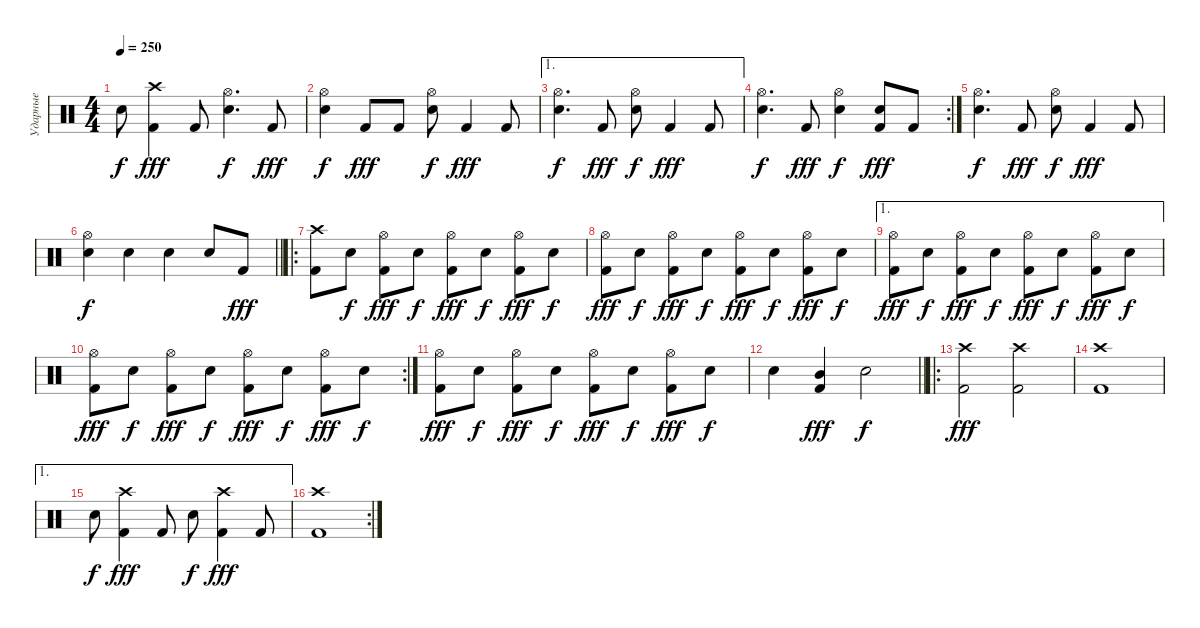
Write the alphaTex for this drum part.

\track ("Ударные" "Ударные") {instrument percussion}
\staff {score}
\articulation defaults
\ts (4 4)
\tempo 250
\clef neutral
\ks c "Snare (hit) 2".8{dy f}
("Kick (hit) 2" "Crash high (hit)").4{dy fff} "Kick (hit) 2".8 ("Snare (hit) 2" "Hi-Hat (open)").4{d dy f} "Kick (hit) 2".8{dy fff} |
("Snare (hit) 2" "Hi-Hat (open)").4{dy f} "Kick (hit) 2".8{dy fff} "Kick (hit) 2".8 ("Snare (hit) 2" "Hi-Hat (open)").8{dy f} "Kick (hit) 2".4{dy fff} "Kick (hit) 2".8 |
\ae 1
("Snare (hit) 2" "Hi-Hat (open)").4{d dy f} "Kick (hit) 2".8{dy fff} ("Snare (hit) 2" "Hi-Hat (open)").8{dy f} "Kick (hit) 2".4{dy fff} "Kick (hit) 2".8 |
\rc 2
("Snare (hit) 2" "Hi-Hat (open)").4{d dy f} "Kick (hit) 2".8{dy fff} ("Snare (hit) 2" "Hi-Hat (open)").4{dy f} ("Kick (hit) 2" "Snare (hit) 2").8{dy fff} "Kick (hit) 2".8 |
("Snare (hit) 2" "Hi-Hat (open)").4{d dy f} "Kick (hit) 2".8{dy fff} ("Snare (hit) 2" "Hi-Hat (open)").8{dy f} "Kick (hit) 2".4{dy fff} "Kick (hit) 2".8 |
\barLineRight lightlight
("Snare (hit) 2" "Hi-Hat (open)").4{dy f} "Snare (hit) 2".4 "Snare (hit) 2".4 "Snare (hit) 2".8 "Kick (hit) 2".8{dy fff} |
\ro
("Kick (hit) 2" "Crash high (hit)").8 "Snare (hit) 2".8{dy f} ("Kick (hit) 2" "Hi-Hat (open)").8{dy fff} "Snare (hit) 2".8{dy f} ("Kick (hit) 2" "Hi-Hat (open)").8{dy fff} "Snare (hit) 2".8{dy f} ("Kick (hit) 2" "Hi-Hat (open)").8{dy fff} "Snare (hit) 2".8{dy f} |
("Kick (hit) 2" "Hi-Hat (open)").8{dy fff} "Snare (hit) 2".8{dy f} ("Kick (hit) 2" "Hi-Hat (open)").8{dy fff} "Snare (hit) 2".8{dy f} ("Kick (hit) 2" "Hi-Hat (open)").8{dy fff} "Snare (hit) 2".8{dy f} ("Kick (hit) 2" "Hi-Hat (open)").8{dy fff} "Snare (hit) 2".8{dy f} |
\ae 1
("Kick (hit) 2" "Hi-Hat (open)").8{dy fff} "Snare (hit) 2".8{dy f} ("Kick (hit) 2" "Hi-Hat (open)").8{dy fff} "Snare (hit) 2".8{dy f} ("Kick (hit) 2" "Hi-Hat (open)").8{dy fff} "Snare (hit) 2".8{dy f} ("Kick (hit) 2" "Hi-Hat (open)").8{dy fff} "Snare (hit) 2".8{dy f} |
\rc 2
("Kick (hit) 2" "Hi-Hat (open)").8{dy fff} "Snare (hit) 2".8{dy f} ("Kick (hit) 2" "Hi-Hat (open)").8{dy fff} "Snare (hit) 2".8{dy f} ("Kick (hit) 2" "Hi-Hat (open)").8{dy fff} "Snare (hit) 2".8{dy f} ("Kick (hit) 2" "Hi-Hat (open)").8{dy fff} "Snare (hit) 2".8{dy f} |
("Kick (hit) 2" "Hi-Hat (open)").8{dy fff} "Snare (hit) 2".8{dy f} ("Kick (hit) 2" "Hi-Hat (open)").8{dy fff} "Snare (hit) 2".8{dy f} ("Kick (hit) 2" "Hi-Hat (open)").8{dy fff} "Snare (hit) 2".8{dy f} ("Kick (hit) 2" "Hi-Hat (open)").8{dy fff} "Snare (hit) 2".8{dy f} |
\barLineRight lightlight "Snare (hit) 2".4
("Kick (hit) 2" "Mid Tom (hit)").4{dy fff} "Snare (hit) 2".2{dy f} |
\ro
("Kick (hit) 2" "Crash high (hit)").2{dy fff} ("Kick (hit) 2" "Crash high (hit)").2 |
("Kick (hit) 2" "Crash high (hit)").1 |
\ae 1 "Snare (hit) 2".8{dy f}
("Kick (hit) 2" "Crash high (hit)").4{dy fff} "Kick (hit) 2".8 "Snare (hit) 2".8{dy f} ("Kick (hit) 2" "Crash high (hit)").4{dy fff} "Kick (hit) 2".8 |
\rc 2
("Kick (hit) 2" "Crash high (hit)").1
